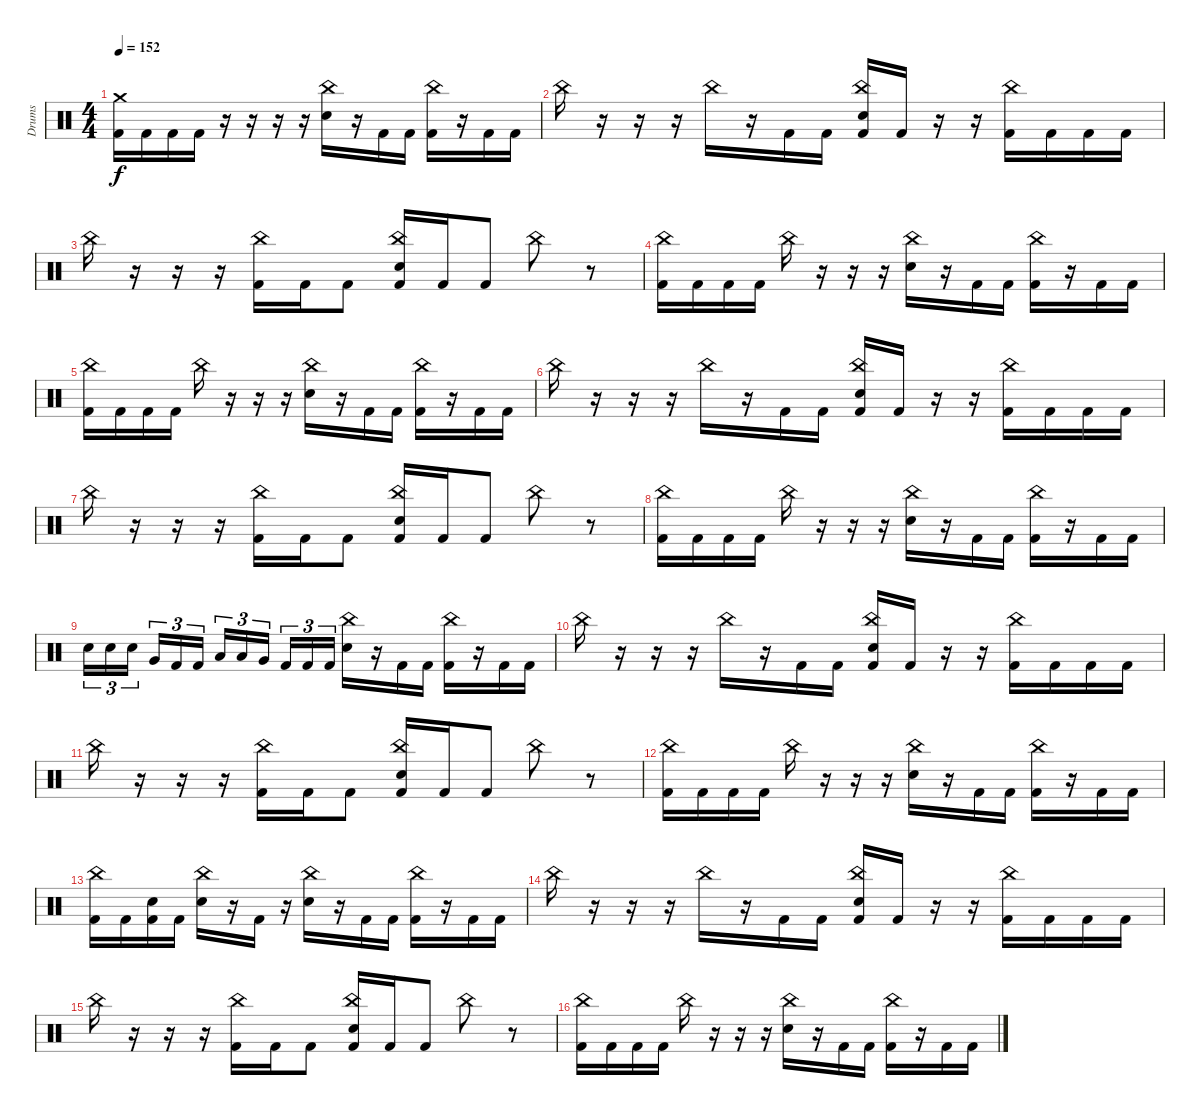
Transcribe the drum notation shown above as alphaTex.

\track ("Drums" "Drums") {instrument percussion}
\staff {score}
\articulation defaults
\ts (4 4)
\tempo 152
\clef neutral
\ks c
("Crash medium (hit)" "Kick (hit) 2").16{dy f} "Kick (hit) 2".16 "Kick (hit) 2".16 "Kick (hit) 2".16 r.16 r.16 r.16 r.16 ("China (hit)" "Electric Snare (hit)").16 r.16 "Kick (hit) 2".16 "Kick (hit) 2".16 ("China (hit)" "Kick (hit) 2").16 r.16 "Kick (hit) 2".16 "Kick (hit) 2".16 |
"China (hit)".16 r.16 r.16 r.16 "China (hit)".16 r.16 "Kick (hit) 2".16 "Kick (hit) 2".16 ("China (hit)" "Electric Snare (hit)" "Kick (hit) 2").16 "Kick (hit) 2".16 r.16 r.16 ("China (hit)" "Kick (hit) 2").16 "Kick (hit) 2".16 "Kick (hit) 2".16 "Kick (hit) 2".16 |
"China (hit)".16 r.16 r.16 r.16 ("China (hit)" "Kick (hit) 2").16 "Kick (hit) 2".16 "Kick (hit) 2".8 ("China (hit)" "Electric Snare (hit)" "Kick (hit) 2").16 "Kick (hit) 2".16 "Kick (hit) 2".8 "China (hit)".8 r.8 |
("China (hit)" "Kick (hit) 2").16 "Kick (hit) 2".16 "Kick (hit) 2".16 "Kick (hit) 2".16 "China (hit)".16 r.16 r.16 r.16 ("China (hit)" "Electric Snare (hit)").16 r.16 "Kick (hit) 2".16 "Kick (hit) 2".16 ("China (hit)" "Kick (hit) 2").16 r.16 "Kick (hit) 2".16 "Kick (hit) 2".16 |
("China (hit)" "Kick (hit) 2").16 "Kick (hit) 2".16 "Kick (hit) 2".16 "Kick (hit) 2".16 "China (hit)".16 r.16 r.16 r.16 ("China (hit)" "Electric Snare (hit)").16 r.16 "Kick (hit) 2".16 "Kick (hit) 2".16 ("China (hit)" "Kick (hit) 2").16 r.16 "Kick (hit) 2".16 "Kick (hit) 2".16 |
"China (hit)".16 r.16 r.16 r.16 "China (hit)".16 r.16 "Kick (hit) 2".16 "Kick (hit) 2".16 ("China (hit)" "Electric Snare (hit)" "Kick (hit) 2").16 "Kick (hit) 2".16 r.16 r.16 ("China (hit)" "Kick (hit) 2").16 "Kick (hit) 2".16 "Kick (hit) 2".16 "Kick (hit) 2".16 |
"China (hit)".16 r.16 r.16 r.16 ("China (hit)" "Kick (hit) 2").16 "Kick (hit) 2".16 "Kick (hit) 2".8 ("China (hit)" "Electric Snare (hit)" "Kick (hit) 2").16 "Kick (hit) 2".16 "Kick (hit) 2".8 "China (hit)".8 r.8 |
("China (hit)" "Kick (hit) 2").16 "Kick (hit) 2".16 "Kick (hit) 2".16 "Kick (hit) 2".16 "China (hit)".16 r.16 r.16 r.16 ("China (hit)" "Electric Snare (hit)").16 r.16 "Kick (hit) 2".16 "Kick (hit) 2".16 ("China (hit)" "Kick (hit) 2").16 r.16 "Kick (hit) 2".16 "Kick (hit) 2".16 |
"Electric Snare (hit)".16{tu (3 2)} "Electric Snare (hit)".16{tu (3 2)} "Electric Snare (hit)".16{tu (3 2)} "Very Low Tom (hit)".16{tu (3 2)} "Kick (hit) 2".16{tu (3 2)} "Kick (hit) 2".16{tu (3 2)} "Low Tom (hit)".16{tu (3 2)} "Low Tom (hit)".16{tu (3 2)} "Very Low Tom (hit)".16{tu (3 2)} "Kick (hit) 2".16{tu (3 2)} "Kick (hit) 2".16{tu (3 2)} "Kick (hit) 2".16{tu (3 2)} ("China (hit)" "Electric Snare (hit)").16 r.16 "Kick (hit) 2".16 "Kick (hit) 2".16 ("China (hit)" "Kick (hit) 2").16 r.16 "Kick (hit) 2".16 "Kick (hit) 2".16 |
"China (hit)".16 r.16 r.16 r.16 "China (hit)".16 r.16 "Kick (hit) 2".16 "Kick (hit) 2".16 ("China (hit)" "Electric Snare (hit)" "Kick (hit) 2").16 "Kick (hit) 2".16 r.16 r.16 ("China (hit)" "Kick (hit) 2").16 "Kick (hit) 2".16 "Kick (hit) 2".16 "Kick (hit) 2".16 |
"China (hit)".16 r.16 r.16 r.16 ("China (hit)" "Kick (hit) 2").16 "Kick (hit) 2".16 "Kick (hit) 2".8 ("China (hit)" "Electric Snare (hit)" "Kick (hit) 2").16 "Kick (hit) 2".16 "Kick (hit) 2".8 "China (hit)".8 r.8 |
("China (hit)" "Kick (hit) 2").16 "Kick (hit) 2".16 "Kick (hit) 2".16 "Kick (hit) 2".16 "China (hit)".16 r.16 r.16 r.16 ("China (hit)" "Electric Snare (hit)").16 r.16 "Kick (hit) 2".16 "Kick (hit) 2".16 ("China (hit)" "Kick (hit) 2").16 r.16 "Kick (hit) 2".16 "Kick (hit) 2".16 |
("China (hit)" "Kick (hit) 2").16 "Kick (hit) 2".16 ("Electric Snare (hit)" "Kick (hit) 2").16 "Kick (hit) 2".16 ("China (hit)" "Electric Snare (hit)").16 r.16 "Kick (hit) 2".16 r.16 ("China (hit)" "Electric Snare (hit)").16 r.16 "Kick (hit) 2".16 "Kick (hit) 2".16 ("China (hit)" "Kick (hit) 2").16 r.16 "Kick (hit) 2".16 "Kick (hit) 2".16 |
"China (hit)".16 r.16 r.16 r.16 "China (hit)".16 r.16 "Kick (hit) 2".16 "Kick (hit) 2".16 ("China (hit)" "Electric Snare (hit)" "Kick (hit) 2").16 "Kick (hit) 2".16 r.16 r.16 ("China (hit)" "Kick (hit) 2").16 "Kick (hit) 2".16 "Kick (hit) 2".16 "Kick (hit) 2".16 |
"China (hit)".16 r.16 r.16 r.16 ("China (hit)" "Kick (hit) 2").16 "Kick (hit) 2".16 "Kick (hit) 2".8 ("China (hit)" "Electric Snare (hit)" "Kick (hit) 2").16 "Kick (hit) 2".16 "Kick (hit) 2".8 "China (hit)".8 r.8 |
("China (hit)" "Kick (hit) 2").16 "Kick (hit) 2".16 "Kick (hit) 2".16 "Kick (hit) 2".16 "China (hit)".16 r.16 r.16 r.16 ("China (hit)" "Electric Snare (hit)").16 r.16 "Kick (hit) 2".16 "Kick (hit) 2".16 ("China (hit)" "Kick (hit) 2").16 r.16 "Kick (hit) 2".16 "Kick (hit) 2".16
